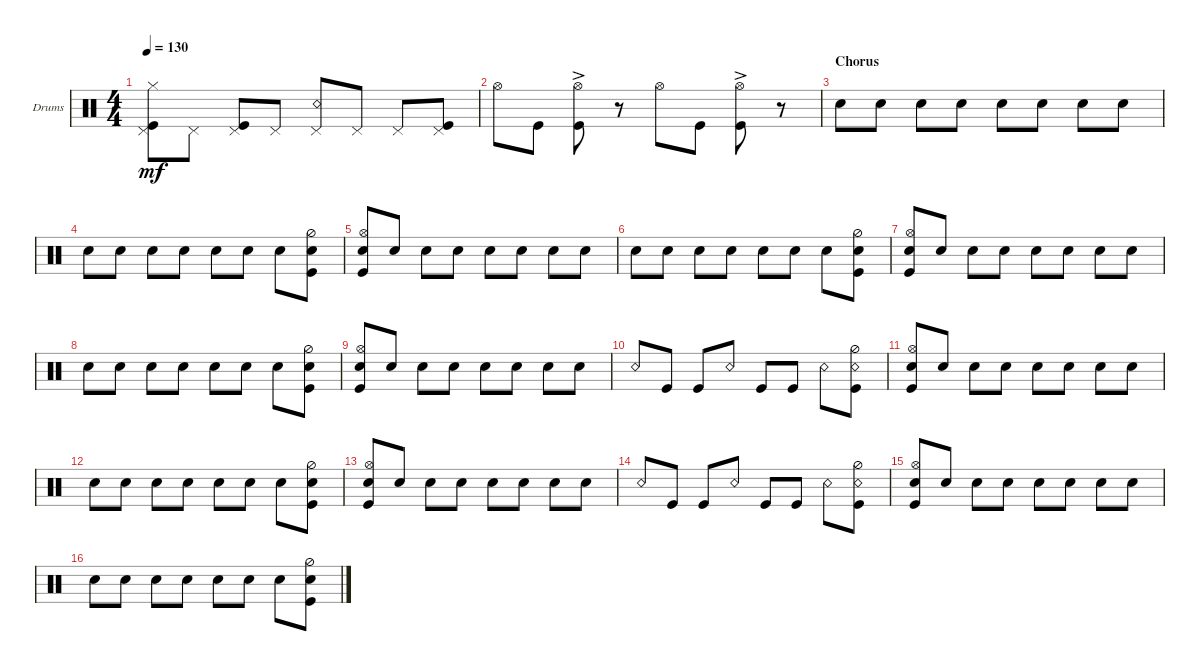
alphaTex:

\defaultSystemsLayout 4
\bracketExtendMode groupsimilarinstruments
\firstSystemTrackNameOrientation horizontal
\otherSystemsTrackNameOrientation horizontal
\track ("Drumkit" "Drums") {instrument percussion}
\staff {score}
\articulation defaults
\ts (4 4)
\tempo 130
\clef neutral
\ks c
("Kick (hit)" "Pedal Hi-Hat (hit)" "Hi-Hat (closed)").8{dy mf} "Pedal Hi-Hat (hit)".8 ("Kick (hit)" "Pedal Hi-Hat (hit)").8 "Pedal Hi-Hat (hit)".8 ("Snare (rim shot)" "Pedal Hi-Hat (hit)").8 "Pedal Hi-Hat (hit)".8 "Pedal Hi-Hat (hit)".8 ("Kick (hit)" "Pedal Hi-Hat (hit)").8 |
"Hi-Hat (open)".8 "Kick (hit)".8 ("Kick (hit)" "Hi-Hat (open)"{ac}).8 r.8 "Hi-Hat (open)".8 "Kick (hit)".8 ("Kick (hit)" "Hi-Hat (open)"{ac}).8 r.8 |
\section ("" "Chorus")
"Snare (hit) 2".8 "Snare (hit) 2".8 "Snare (hit) 2".8 "Snare (hit) 2".8 "Snare (hit) 2".8 "Snare (hit) 2".8 "Snare (hit) 2".8 "Snare (hit) 2".8 |
"Snare (hit) 2".8 "Snare (hit) 2".8 "Snare (hit) 2".8 "Snare (hit) 2".8 "Snare (hit) 2".8 "Snare (hit) 2".8 "Snare (hit) 2".8 ("Snare (hit) 2" "Kick (hit)" "Hi-Hat (half)").8 |
("Snare (hit) 2" "Kick (hit)" "Hi-Hat (open)").8 "Snare (hit) 2".8 "Snare (hit) 2".8 "Snare (hit) 2".8 "Snare (hit) 2".8 "Snare (hit) 2".8 "Snare (hit) 2".8 "Snare (hit) 2".8 |
"Snare (hit) 2".8 "Snare (hit) 2".8 "Snare (hit) 2".8 "Snare (hit) 2".8 "Snare (hit) 2".8 "Snare (hit) 2".8 "Snare (hit) 2".8 ("Snare (hit) 2" "Kick (hit)" "Hi-Hat (half)").8 |
("Snare (hit) 2" "Kick (hit)" "Hi-Hat (open)").8 "Snare (hit) 2".8 "Snare (hit) 2".8 "Snare (hit) 2".8 "Snare (hit) 2".8 "Snare (hit) 2".8 "Snare (hit) 2".8 "Snare (hit) 2".8 |
"Snare (hit) 2".8 "Snare (hit) 2".8 "Snare (hit) 2".8 "Snare (hit) 2".8 "Snare (hit) 2".8 "Snare (hit) 2".8 "Snare (hit) 2".8 ("Snare (hit) 2" "Kick (hit)" "Hi-Hat (half)").8 |
("Snare (hit) 2" "Kick (hit)" "Hi-Hat (open)").8 "Snare (hit) 2".8 "Snare (hit) 2".8 "Snare (hit) 2".8 "Snare (hit) 2".8 "Snare (hit) 2".8 "Snare (hit) 2".8 "Snare (hit) 2".8 |
"Snare (rim shot)".8 "Kick (hit)".8 "Kick (hit)".8 "Snare (rim shot)".8 "Kick (hit)".8 "Kick (hit)".8 "Snare (rim shot)".8 ("Snare (rim shot)" "Kick (hit)" "Hi-Hat (half)").8 |
("Snare (hit) 2" "Kick (hit)" "Hi-Hat (open)").8 "Snare (hit) 2".8 "Snare (hit) 2".8 "Snare (hit) 2".8 "Snare (hit) 2".8 "Snare (hit) 2".8 "Snare (hit) 2".8 "Snare (hit) 2".8 |
"Snare (hit) 2".8 "Snare (hit) 2".8 "Snare (hit) 2".8 "Snare (hit) 2".8 "Snare (hit) 2".8 "Snare (hit) 2".8 "Snare (hit) 2".8 ("Snare (hit) 2" "Kick (hit)" "Hi-Hat (half)").8 |
("Snare (hit) 2" "Kick (hit)" "Hi-Hat (open)").8 "Snare (hit) 2".8 "Snare (hit) 2".8 "Snare (hit) 2".8 "Snare (hit) 2".8 "Snare (hit) 2".8 "Snare (hit) 2".8 "Snare (hit) 2".8 |
"Snare (rim shot)".8 "Kick (hit)".8 "Kick (hit)".8 "Snare (rim shot)".8 "Kick (hit)".8 "Kick (hit)".8 "Snare (rim shot)".8 ("Snare (rim shot)" "Kick (hit)" "Hi-Hat (half)").8 |
("Snare (hit) 2" "Kick (hit)" "Hi-Hat (open)").8 "Snare (hit) 2".8 "Snare (hit) 2".8 "Snare (hit) 2".8 "Snare (hit) 2".8 "Snare (hit) 2".8 "Snare (hit) 2".8 "Snare (hit) 2".8 |
"Snare (hit) 2".8 "Snare (hit) 2".8 "Snare (hit) 2".8 "Snare (hit) 2".8 "Snare (hit) 2".8 "Snare (hit) 2".8 "Snare (hit) 2".8 ("Snare (hit) 2" "Kick (hit)" "Hi-Hat (half)").8
